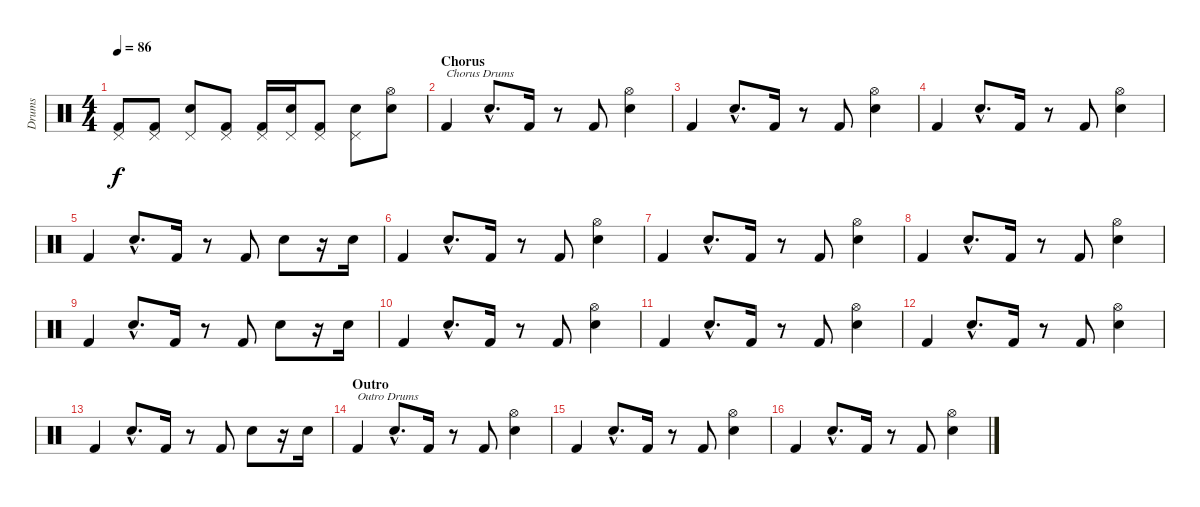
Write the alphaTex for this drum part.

\track ("Drums" "Drums") {instrument percussion}
\staff {score}
\articulation defaults
\ts (4 4)
\tempo 86
\clef neutral
\ks c
("Pedal Hi-Hat (hit)" "Kick (hit) 2").8{dy f} ("Pedal Hi-Hat (hit)" "Kick (hit) 2").8 ("Pedal Hi-Hat (hit)" "Snare (hit) 2").8 ("Pedal Hi-Hat (hit)" "Kick (hit) 2").8 ("Pedal Hi-Hat (hit)" "Kick (hit) 2").16 ("Pedal Hi-Hat (hit)" "Snare (hit) 2").16 ("Pedal Hi-Hat (hit)" "Kick (hit) 2").8 ("Pedal Hi-Hat (hit)" "Snare (hit) 2").8 ("Hi-Hat (open)" "Snare (hit) 2").8 |
\section ("" "Chorus")
"Kick (hit) 2".4{txt "Chorus Drums"} "Snare (hit) 2"{hac}.8{d} "Kick (hit) 2".16 r.8 "Kick (hit) 2".8 ("Hi-Hat (open)" "Snare (hit) 2").4 |
"Kick (hit) 2".4 "Snare (hit) 2"{hac}.8{d} "Kick (hit) 2".16 r.8 "Kick (hit) 2".8 ("Hi-Hat (open)" "Snare (hit) 2").4 |
"Kick (hit) 2".4 "Snare (hit) 2"{hac}.8{d} "Kick (hit) 2".16 r.8 "Kick (hit) 2".8 ("Hi-Hat (open)" "Snare (hit) 2").4 |
"Kick (hit) 2".4 "Snare (hit) 2"{hac}.8{d} "Kick (hit) 2".16 r.8 "Kick (hit) 2".8 "Snare (hit) 2".8 r.16 "Snare (hit) 2".16 |
"Kick (hit) 2".4 "Snare (hit) 2"{hac}.8{d} "Kick (hit) 2".16 r.8 "Kick (hit) 2".8 ("Hi-Hat (open)" "Snare (hit) 2").4 |
"Kick (hit) 2".4 "Snare (hit) 2"{hac}.8{d} "Kick (hit) 2".16 r.8 "Kick (hit) 2".8 ("Hi-Hat (open)" "Snare (hit) 2").4 |
"Kick (hit) 2".4 "Snare (hit) 2"{hac}.8{d} "Kick (hit) 2".16 r.8 "Kick (hit) 2".8 ("Hi-Hat (open)" "Snare (hit) 2").4 |
"Kick (hit) 2".4 "Snare (hit) 2"{hac}.8{d} "Kick (hit) 2".16 r.8 "Kick (hit) 2".8 "Snare (hit) 2".8 r.16 "Snare (hit) 2".16 |
"Kick (hit) 2".4 "Snare (hit) 2"{hac}.8{d} "Kick (hit) 2".16 r.8 "Kick (hit) 2".8 ("Hi-Hat (open)" "Snare (hit) 2").4 |
"Kick (hit) 2".4 "Snare (hit) 2"{hac}.8{d} "Kick (hit) 2".16 r.8 "Kick (hit) 2".8 ("Hi-Hat (open)" "Snare (hit) 2").4 |
"Kick (hit) 2".4 "Snare (hit) 2"{hac}.8{d} "Kick (hit) 2".16 r.8 "Kick (hit) 2".8 ("Hi-Hat (open)" "Snare (hit) 2").4 |
"Kick (hit) 2".4 "Snare (hit) 2"{hac}.8{d} "Kick (hit) 2".16 r.8 "Kick (hit) 2".8 "Snare (hit) 2".8 r.16 "Snare (hit) 2".16 |
\section ("" "Outro")
"Kick (hit) 2".4{txt "Outro Drums"} "Snare (hit) 2"{hac}.8{d} "Kick (hit) 2".16 r.8 "Kick (hit) 2".8 ("Hi-Hat (open)" "Snare (hit) 2").4 |
"Kick (hit) 2".4 "Snare (hit) 2"{hac}.8{d} "Kick (hit) 2".16 r.8 "Kick (hit) 2".8 ("Hi-Hat (open)" "Snare (hit) 2").4 |
"Kick (hit) 2".4 "Snare (hit) 2"{hac}.8{d} "Kick (hit) 2".16 r.8 "Kick (hit) 2".8 ("Hi-Hat (open)" "Snare (hit) 2").4
